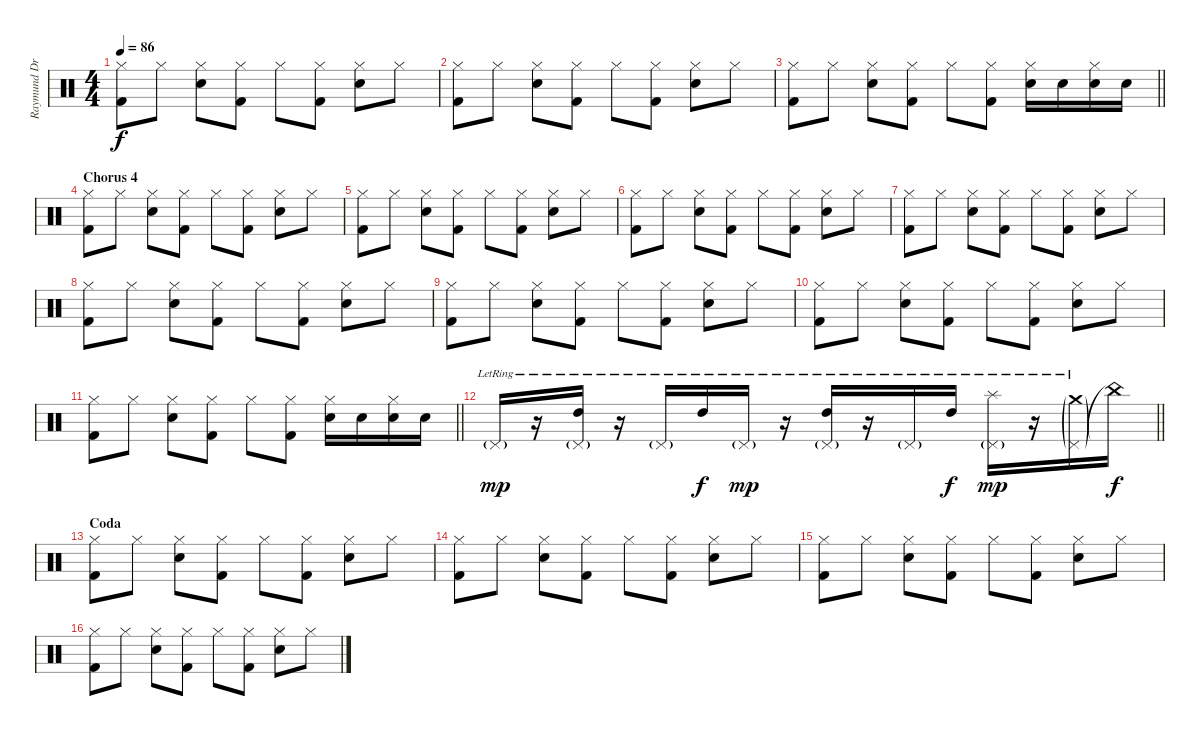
\track ("Raymund Drums" "Raymund Dr") {instrument percussion}
\staff {score}
\articulation defaults
\ts (4 4)
\tempo 86
\clef neutral
\ks c
("Hi-Hat (closed)" "Kick (hit) 2").8{dy f} "Hi-Hat (closed)".8 ("Hi-Hat (closed)" "Snare (hit) 2").8 ("Hi-Hat (closed)" "Kick (hit) 2").8 "Hi-Hat (closed)".8 ("Hi-Hat (closed)" "Kick (hit) 2").8 ("Hi-Hat (closed)" "Snare (hit) 2").8 "Hi-Hat (closed)".8 |
("Hi-Hat (closed)" "Kick (hit) 2").8 "Hi-Hat (closed)".8 ("Hi-Hat (closed)" "Snare (hit) 2").8 ("Hi-Hat (closed)" "Kick (hit) 2").8 "Hi-Hat (closed)".8 ("Hi-Hat (closed)" "Kick (hit) 2").8 ("Hi-Hat (closed)" "Snare (hit) 2").8 "Hi-Hat (closed)".8 |
\barLineRight lightlight
("Hi-Hat (closed)" "Kick (hit) 2").8 "Hi-Hat (closed)".8 ("Hi-Hat (closed)" "Snare (hit) 2").8 ("Hi-Hat (closed)" "Kick (hit) 2").8 "Hi-Hat (closed)".8 ("Hi-Hat (closed)" "Kick (hit) 2").8 ("Hi-Hat (closed)" "Snare (hit) 2").16 "Snare (hit) 2".16 ("Hi-Hat (closed)" "Snare (hit) 2").16 "Snare (hit) 2".16 |
\section ("" "Chorus 4")
("Hi-Hat (closed)" "Kick (hit) 2").8 "Hi-Hat (closed)".8 ("Hi-Hat (closed)" "Snare (hit) 2").8 ("Hi-Hat (closed)" "Kick (hit) 2").8 "Hi-Hat (closed)".8 ("Hi-Hat (closed)" "Kick (hit) 2").8 ("Hi-Hat (closed)" "Snare (hit) 2").8 "Hi-Hat (closed)".8 |
("Hi-Hat (closed)" "Kick (hit) 2").8 "Hi-Hat (closed)".8 ("Hi-Hat (closed)" "Snare (hit) 2").8 ("Hi-Hat (closed)" "Kick (hit) 2").8 "Hi-Hat (closed)".8 ("Hi-Hat (closed)" "Kick (hit) 2").8 ("Hi-Hat (closed)" "Snare (hit) 2").8 "Hi-Hat (closed)".8 |
("Hi-Hat (closed)" "Kick (hit) 2").8 "Hi-Hat (closed)".8 ("Hi-Hat (closed)" "Snare (hit) 2").8 ("Hi-Hat (closed)" "Kick (hit) 2").8 "Hi-Hat (closed)".8 ("Hi-Hat (closed)" "Kick (hit) 2").8 ("Hi-Hat (closed)" "Snare (hit) 2").8 "Hi-Hat (closed)".8 |
("Hi-Hat (closed)" "Kick (hit) 2").8 "Hi-Hat (closed)".8 ("Hi-Hat (closed)" "Snare (hit) 2").8 ("Hi-Hat (closed)" "Kick (hit) 2").8 "Hi-Hat (closed)".8 ("Hi-Hat (closed)" "Kick (hit) 2").8 ("Hi-Hat (closed)" "Snare (hit) 2").8 "Hi-Hat (closed)".8 |
("Hi-Hat (closed)" "Kick (hit) 2").8 "Hi-Hat (closed)".8 ("Hi-Hat (closed)" "Snare (hit) 2").8 ("Hi-Hat (closed)" "Kick (hit) 2").8 "Hi-Hat (closed)".8 ("Hi-Hat (closed)" "Kick (hit) 2").8 ("Hi-Hat (closed)" "Snare (hit) 2").8 "Hi-Hat (closed)".8 |
("Hi-Hat (closed)" "Kick (hit) 2").8 "Hi-Hat (closed)".8 ("Hi-Hat (closed)" "Snare (hit) 2").8 ("Hi-Hat (closed)" "Kick (hit) 2").8 "Hi-Hat (closed)".8 ("Hi-Hat (closed)" "Kick (hit) 2").8 ("Hi-Hat (closed)" "Snare (hit) 2").8 "Hi-Hat (closed)".8 |
("Hi-Hat (closed)" "Kick (hit) 2").8 "Hi-Hat (closed)".8 ("Hi-Hat (closed)" "Snare (hit) 2").8 ("Hi-Hat (closed)" "Kick (hit) 2").8 "Hi-Hat (closed)".8 ("Hi-Hat (closed)" "Kick (hit) 2").8 ("Hi-Hat (closed)" "Snare (hit) 2").8 "Hi-Hat (closed)".8 |
\barLineRight lightlight
("Hi-Hat (closed)" "Kick (hit) 2").8 "Hi-Hat (closed)".8 ("Hi-Hat (closed)" "Snare (hit) 2").8 ("Hi-Hat (closed)" "Kick (hit) 2").8 "Hi-Hat (closed)".8 ("Hi-Hat (closed)" "Kick (hit) 2").8 ("Hi-Hat (closed)" "Snare (hit) 2").16 "Snare (hit) 2".16 ("Hi-Hat (closed)" "Snare (hit) 2").16 "Snare (hit) 2".16 |
\barLineRight lightlight "Pedal Hi-Hat (hit)"{g lr}.16{dy mp}
r.16 ("Pedal Hi-Hat (hit)"{g lr} "High Tom (hit)"{lr}).16 r.16 "Pedal Hi-Hat (hit)"{g lr}.16 "High Tom (hit)"{lr}.16{dy f} "Pedal Hi-Hat (hit)"{g lr}.16{dy mp} r.16 ("Pedal Hi-Hat (hit)"{g lr} "High Tom (hit)"{lr}).16 r.16 "Pedal Hi-Hat (hit)"{g lr}.16 "High Tom (hit)"{lr}.16{dy f} ("Pedal Hi-Hat (hit)"{g lr} "Splash (hit)"{lr}).16{dy mp} r.16 ("Pedal Hi-Hat (hit)"{g lr} "Crash medium (hit)"{g lr}).16 "China (hit)"{t}.16{dy f} |
\section ("" "Coda")
("Hi-Hat (closed)" "Kick (hit) 2").8 "Hi-Hat (closed)".8 ("Hi-Hat (closed)" "Snare (hit) 2").8 ("Hi-Hat (closed)" "Kick (hit) 2").8 "Hi-Hat (closed)".8 ("Hi-Hat (closed)" "Kick (hit) 2").8 ("Hi-Hat (closed)" "Snare (hit) 2").8 "Hi-Hat (closed)".8 |
("Hi-Hat (closed)" "Kick (hit) 2").8 "Hi-Hat (closed)".8 ("Hi-Hat (closed)" "Snare (hit) 2").8 ("Hi-Hat (closed)" "Kick (hit) 2").8 "Hi-Hat (closed)".8 ("Hi-Hat (closed)" "Kick (hit) 2").8 ("Hi-Hat (closed)" "Snare (hit) 2").8 "Hi-Hat (closed)".8 |
("Hi-Hat (closed)" "Kick (hit) 2").8 "Hi-Hat (closed)".8 ("Hi-Hat (closed)" "Snare (hit) 2").8 ("Hi-Hat (closed)" "Kick (hit) 2").8 "Hi-Hat (closed)".8 ("Hi-Hat (closed)" "Kick (hit) 2").8 ("Hi-Hat (closed)" "Snare (hit) 2").8 "Hi-Hat (closed)".8 |
("Hi-Hat (closed)" "Kick (hit) 2").8 "Hi-Hat (closed)".8 ("Hi-Hat (closed)" "Snare (hit) 2").8 ("Hi-Hat (closed)" "Kick (hit) 2").8 "Hi-Hat (closed)".8 ("Hi-Hat (closed)" "Kick (hit) 2").8 ("Hi-Hat (closed)" "Snare (hit) 2").8 "Hi-Hat (closed)".8
